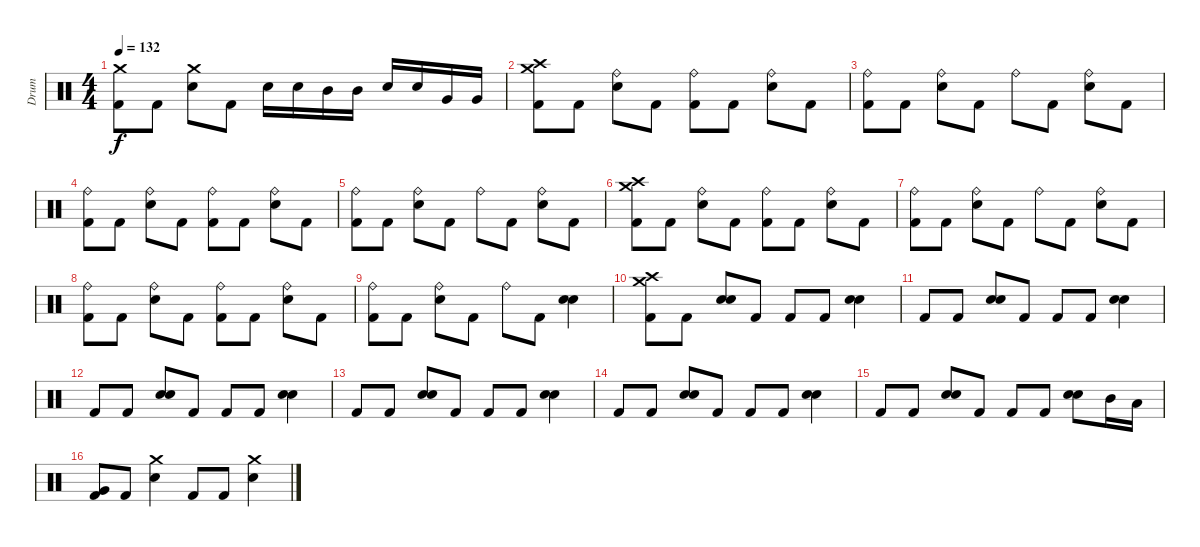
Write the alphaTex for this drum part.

\track ("Drum" "Drum") {instrument percussion}
\staff {score}
\articulation defaults
\ts (4 4)
\tempo 132
\clef neutral
\ks c
("Crash medium (hit)" "Kick (hit) 2").8{dy f} "Kick (hit) 2".8 ("Crash medium (hit)" "Snare (hit) 2").8 "Kick (hit) 2".8 "Snare (hit) 2".16 "Snare (hit) 2".16 "Mid Tom (hit)".16 "Mid Tom (hit)".16 "Snare (hit) 2".16 "Snare (hit) 2".16 "Very Low Tom (hit)".16 "Very Low Tom (hit)".16 |
("Kick (hit) 2" "Crash high (hit)" "Crash medium (hit)").8 "Kick (hit) 2".8 ("Ride (bell)" "Snare (hit) 2").8 "Kick (hit) 2".8 ("Ride (bell)" "Kick (hit) 2").8 "Kick (hit) 2".8 ("Ride (bell)" "Snare (hit) 2").8 "Kick (hit) 2".8 |
("Ride (bell)" "Kick (hit) 2").8 "Kick (hit) 2".8 ("Ride (bell)" "Snare (hit) 2").8 "Kick (hit) 2".8 "Ride (bell)".8 "Kick (hit) 2".8 ("Ride (bell)" "Snare (hit) 2").8 "Kick (hit) 2".8 |
("Ride (bell)" "Kick (hit) 2").8 "Kick (hit) 2".8 ("Ride (bell)" "Snare (hit) 2").8 "Kick (hit) 2".8 ("Ride (bell)" "Kick (hit) 2").8 "Kick (hit) 2".8 ("Ride (bell)" "Snare (hit) 2").8 "Kick (hit) 2".8 |
("Ride (bell)" "Kick (hit) 2").8 "Kick (hit) 2".8 ("Ride (bell)" "Snare (hit) 2").8 "Kick (hit) 2".8 "Ride (bell)".8 "Kick (hit) 2".8 ("Ride (bell)" "Snare (hit) 2").8 "Kick (hit) 2".8 |
("Kick (hit) 2" "Crash high (hit)" "Crash medium (hit)").8 "Kick (hit) 2".8 ("Ride (bell)" "Snare (hit) 2").8 "Kick (hit) 2".8 ("Ride (bell)" "Kick (hit) 2").8 "Kick (hit) 2".8 ("Ride (bell)" "Snare (hit) 2").8 "Kick (hit) 2".8 |
("Ride (bell)" "Kick (hit) 2").8 "Kick (hit) 2".8 ("Ride (bell)" "Snare (hit) 2").8 "Kick (hit) 2".8 "Ride (bell)".8 "Kick (hit) 2".8 ("Ride (bell)" "Snare (hit) 2").8 "Kick (hit) 2".8 |
("Ride (bell)" "Kick (hit) 2").8 "Kick (hit) 2".8 ("Ride (bell)" "Snare (hit) 2").8 "Kick (hit) 2".8 ("Ride (bell)" "Kick (hit) 2").8 "Kick (hit) 2".8 ("Ride (bell)" "Snare (hit) 2").8 "Kick (hit) 2".8 |
("Ride (bell)" "Kick (hit) 2").8 "Kick (hit) 2".8 ("Ride (bell)" "Snare (hit) 2").8 "Kick (hit) 2".8 "Ride (bell)".8 "Kick (hit) 2".8 ("Snare (hit) 2" "Snare (hit) 2").4{bd 60} |
("Kick (hit) 2" "Crash high (hit)" "Crash medium (hit)").8 "Kick (hit) 2".8 ("Snare (hit) 2" "Snare (hit) 2").8{bd 60} "Kick (hit) 2".8 "Kick (hit) 2".8 "Kick (hit) 2".8 ("Snare (hit) 2" "Snare (hit) 2").4{bd 60} |
"Kick (hit) 2".8 "Kick (hit) 2".8 ("Snare (hit) 2" "Snare (hit) 2").8{bd 60} "Kick (hit) 2".8 "Kick (hit) 2".8 "Kick (hit) 2".8 ("Snare (hit) 2" "Snare (hit) 2").4{bd 60} |
"Kick (hit) 2".8 "Kick (hit) 2".8 ("Snare (hit) 2" "Snare (hit) 2").8{bd 60} "Kick (hit) 2".8 "Kick (hit) 2".8 "Kick (hit) 2".8 ("Snare (hit) 2" "Snare (hit) 2").4{bd 60} |
"Kick (hit) 2".8 "Kick (hit) 2".8 ("Snare (hit) 2" "Snare (hit) 2").8{bd 60} "Kick (hit) 2".8 "Kick (hit) 2".8 "Kick (hit) 2".8 ("Snare (hit) 2" "Snare (hit) 2").4{bd 60} |
"Kick (hit) 2".8 "Kick (hit) 2".8 ("Snare (hit) 2" "Snare (hit) 2").8{bd 60} "Kick (hit) 2".8 "Kick (hit) 2".8 "Kick (hit) 2".8 ("Snare (hit) 2" "Snare (hit) 2").4{bd 60} |
"Kick (hit) 2".8 "Kick (hit) 2".8 ("Snare (hit) 2" "Snare (hit) 2").8{bd 60} "Kick (hit) 2".8 "Kick (hit) 2".8 "Kick (hit) 2".8 ("Snare (hit) 2" "Snare (hit) 2").8{bd 60} "Mid Tom (hit)".16 "Low Tom (hit)".16 |
("Kick (hit) 2" "Very Low Tom (hit)").8 "Kick (hit) 2".8 ("Snare (hit) 2" "Crash medium (hit)").4 "Kick (hit) 2".8 "Kick (hit) 2".8 ("Snare (hit) 2" "Crash medium (hit)").4
